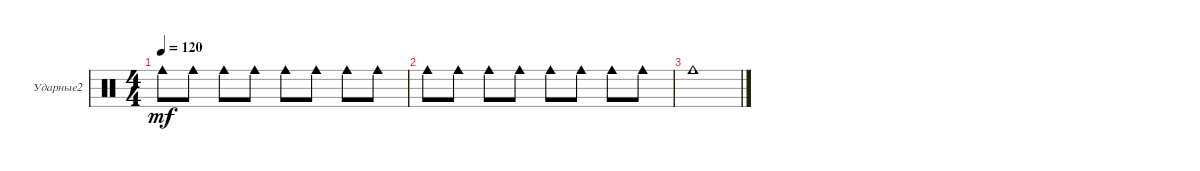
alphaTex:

\defaultSystemsLayout 4
\bracketExtendMode groupsimilarinstruments
\firstSystemTrackNameOrientation horizontal
\otherSystemsTrackNameOrientation horizontal
\track ("Е.Кулаков" "Ударные2") {instrument percussion}
\staff {score}
\articulation defaults
\ts (4 4)
\tempo 120
\clef neutral
\ks c "Cowbell medium (hit)".8{dy mf} "Cowbell medium (hit)".8 "Cowbell medium (hit)".8 "Cowbell medium (hit)".8 "Cowbell medium (hit)".8 "Cowbell medium (hit)".8 "Cowbell medium (hit)".8 "Cowbell medium (hit)".8
|
"Cowbell medium (hit)".8 "Cowbell medium (hit)".8 "Cowbell medium (hit)".8 "Cowbell medium (hit)".8 "Cowbell medium (hit)".8 "Cowbell medium (hit)".8 "Cowbell medium (hit)".8 "Cowbell medium (hit)".8 |
"Cowbell medium (hit)".1
